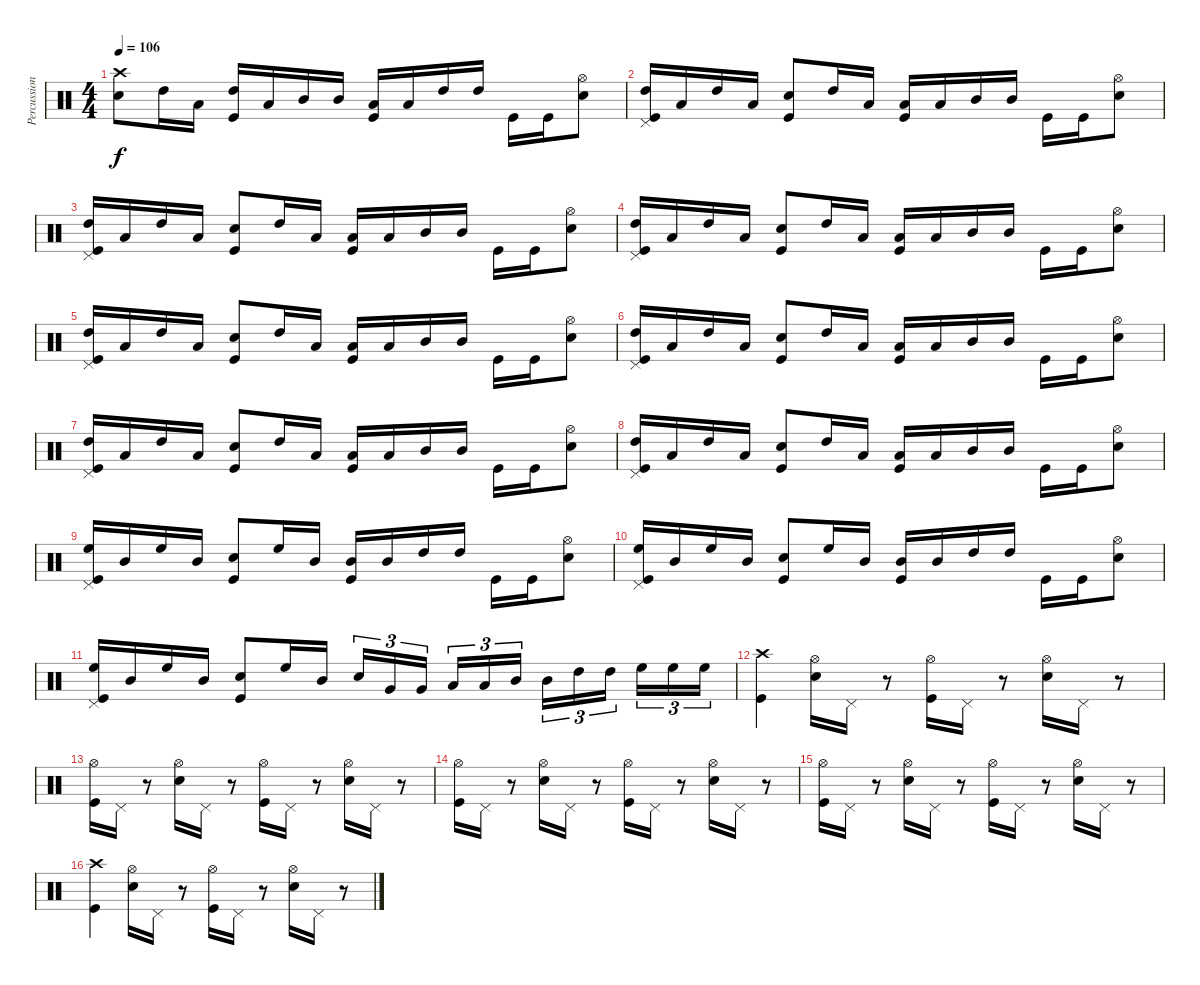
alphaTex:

\track ("Percussion" "Percussion") {instrument percussion}
\staff {score}
\articulation defaults
\ts (4 4)
\tempo 106
\clef neutral
\ks c
("Snare (hit) 2" "Crash high (hit)").8{dy f} "High Tom (hit)".16 "Low Tom (hit)".16 ("High Tom (hit)" "Kick (hit)").16 "Low Tom (hit)".16 "Mid Tom (hit)".16 "Mid Tom (hit)".16 ("Kick (hit)" "Low Tom (hit)").16 "Low Tom (hit)".16 "High Tom (hit)".16 "High Tom (hit)".16 "Kick (hit)".16 "Kick (hit)".16 ("Snare (hit) 2" "Hi-Hat (open)").8 |
("High Tom (hit)" "Kick (hit)" "Pedal Hi-Hat (hit)").16 "Low Tom (hit)".16 "High Tom (hit)".16 "Low Tom (hit)".16 ("Kick (hit)" "Snare (hit) 2").8 "High Tom (hit)".16 "Low Tom (hit)".16 ("Low Tom (hit)" "Kick (hit)").16 "Low Tom (hit)".16 "Mid Tom (hit)".16 "Mid Tom (hit)".16 "Kick (hit)".16 "Kick (hit)".16 ("Snare (hit) 2" "Hi-Hat (open)").8 |
("High Tom (hit)" "Kick (hit)" "Pedal Hi-Hat (hit)").16 "Low Tom (hit)".16 "High Tom (hit)".16 "Low Tom (hit)".16 ("Kick (hit)" "Snare (hit) 2").8 "High Tom (hit)".16 "Low Tom (hit)".16 ("Low Tom (hit)" "Kick (hit)").16 "Low Tom (hit)".16 "Mid Tom (hit)".16 "Mid Tom (hit)".16 "Kick (hit)".16 "Kick (hit)".16 ("Snare (hit) 2" "Hi-Hat (open)").8 |
("High Tom (hit)" "Kick (hit)" "Pedal Hi-Hat (hit)").16 "Low Tom (hit)".16 "High Tom (hit)".16 "Low Tom (hit)".16 ("Kick (hit)" "Snare (hit) 2").8 "High Tom (hit)".16 "Low Tom (hit)".16 ("Low Tom (hit)" "Kick (hit)").16 "Low Tom (hit)".16 "Mid Tom (hit)".16 "Mid Tom (hit)".16 "Kick (hit)".16 "Kick (hit)".16 ("Snare (hit) 2" "Hi-Hat (open)").8 |
("High Tom (hit)" "Kick (hit)" "Pedal Hi-Hat (hit)").16 "Low Tom (hit)".16 "High Tom (hit)".16 "Low Tom (hit)".16 ("Kick (hit)" "Snare (hit) 2").8 "High Tom (hit)".16 "Low Tom (hit)".16 ("Low Tom (hit)" "Kick (hit)").16 "Low Tom (hit)".16 "Mid Tom (hit)".16 "Mid Tom (hit)".16 "Kick (hit)".16 "Kick (hit)".16 ("Snare (hit) 2" "Hi-Hat (open)").8 |
("High Tom (hit)" "Kick (hit)" "Pedal Hi-Hat (hit)").16 "Low Tom (hit)".16 "High Tom (hit)".16 "Low Tom (hit)".16 ("Kick (hit)" "Snare (hit) 2").8 "High Tom (hit)".16 "Low Tom (hit)".16 ("Low Tom (hit)" "Kick (hit)").16 "Low Tom (hit)".16 "Mid Tom (hit)".16 "Mid Tom (hit)".16 "Kick (hit)".16 "Kick (hit)".16 ("Snare (hit) 2" "Hi-Hat (open)").8 |
("High Tom (hit)" "Kick (hit)" "Pedal Hi-Hat (hit)").16 "Low Tom (hit)".16 "High Tom (hit)".16 "Low Tom (hit)".16 ("Kick (hit)" "Snare (hit) 2").8 "High Tom (hit)".16 "Low Tom (hit)".16 ("Low Tom (hit)" "Kick (hit)").16 "Low Tom (hit)".16 "Mid Tom (hit)".16 "Mid Tom (hit)".16 "Kick (hit)".16 "Kick (hit)".16 ("Snare (hit) 2" "Hi-Hat (open)").8 |
("High Tom (hit)" "Kick (hit)" "Pedal Hi-Hat (hit)").16 "Low Tom (hit)".16 "High Tom (hit)".16 "Low Tom (hit)".16 ("Kick (hit)" "Snare (hit) 2").8 "High Tom (hit)".16 "Low Tom (hit)".16 ("Low Tom (hit)" "Kick (hit)").16 "Low Tom (hit)".16 "Mid Tom (hit)".16 "Mid Tom (hit)".16 "Kick (hit)".16 "Kick (hit)".16 ("Snare (hit) 2" "Hi-Hat (open)").8 |
("High Floor Tom (hit)" "Kick (hit)" "Pedal Hi-Hat (hit)").16 "Mid Tom (hit)".16 "High Floor Tom (hit)".16 "Mid Tom (hit)".16 ("Kick (hit)" "Snare (hit) 2").8 "High Floor Tom (hit)".16 "Mid Tom (hit)".16 ("Mid Tom (hit)" "Kick (hit)").16 "Mid Tom (hit)".16 "High Tom (hit)".16 "High Tom (hit)".16 "Kick (hit)".16 "Kick (hit)".16 ("Snare (hit) 2" "Hi-Hat (open)").8 |
("High Floor Tom (hit)" "Kick (hit)" "Pedal Hi-Hat (hit)").16 "Mid Tom (hit)".16 "High Floor Tom (hit)".16 "Mid Tom (hit)".16 ("Kick (hit)" "Snare (hit) 2").8 "High Floor Tom (hit)".16 "Mid Tom (hit)".16 ("Mid Tom (hit)" "Kick (hit)").16 "Mid Tom (hit)".16 "High Tom (hit)".16 "High Tom (hit)".16 "Kick (hit)".16 "Kick (hit)".16 ("Snare (hit) 2" "Hi-Hat (open)").8 |
("High Floor Tom (hit)" "Kick (hit)" "Pedal Hi-Hat (hit)").16 "Mid Tom (hit)".16 "High Floor Tom (hit)".16 "Mid Tom (hit)".16 ("Kick (hit)" "Snare (hit) 2").8 "High Floor Tom (hit)".16 "Mid Tom (hit)".16 "Snare (hit) 2".16{tu (3 2)} "Very Low Tom (hit)".16{tu (3 2)} "Very Low Tom (hit)".16{tu (3 2)} "Low Tom (hit)".16{tu (3 2)} "Low Tom (hit)".16{tu (3 2)} "Mid Tom (hit)".16{tu (3 2)} "Mid Tom (hit)".16{tu (3 2)} "High Tom (hit)".16{tu (3 2)} "High Tom (hit)".16{tu (3 2)} "High Floor Tom (hit)".16{tu (3 2)} "High Floor Tom (hit)".16{tu (3 2)} "High Floor Tom (hit)".16{tu (3 2)} |
("Crash high (hit)" "Kick (hit)").4 ("Hi-Hat (open)" "Snare (hit) 2").16 "Pedal Hi-Hat (hit)".16 r.8 ("Hi-Hat (open)" "Kick (hit)").16 "Pedal Hi-Hat (hit)".16 r.8 ("Hi-Hat (open)" "Snare (hit) 2").16 "Pedal Hi-Hat (hit)".16 r.8 |
("Hi-Hat (open)" "Kick (hit)").16 "Pedal Hi-Hat (hit)".16 r.8 ("Hi-Hat (open)" "Snare (hit) 2").16 "Pedal Hi-Hat (hit)".16 r.8 ("Hi-Hat (open)" "Kick (hit)").16 "Pedal Hi-Hat (hit)".16 r.8 ("Hi-Hat (open)" "Snare (hit) 2").16 "Pedal Hi-Hat (hit)".16 r.8 |
("Hi-Hat (open)" "Kick (hit)").16 "Pedal Hi-Hat (hit)".16 r.8 ("Hi-Hat (open)" "Snare (hit) 2").16 "Pedal Hi-Hat (hit)".16 r.8 ("Hi-Hat (open)" "Kick (hit)").16 "Pedal Hi-Hat (hit)".16 r.8 ("Hi-Hat (open)" "Snare (hit) 2").16 "Pedal Hi-Hat (hit)".16 r.8 |
("Hi-Hat (open)" "Kick (hit)").16 "Pedal Hi-Hat (hit)".16 r.8 ("Hi-Hat (open)" "Snare (hit) 2").16 "Pedal Hi-Hat (hit)".16 r.8 ("Hi-Hat (open)" "Kick (hit)").16 "Pedal Hi-Hat (hit)".16 r.8 ("Hi-Hat (open)" "Snare (hit) 2").16 "Pedal Hi-Hat (hit)".16 r.8 |
("Crash high (hit)" "Kick (hit)").4 ("Hi-Hat (open)" "Snare (hit) 2").16 "Pedal Hi-Hat (hit)".16 r.8 ("Hi-Hat (open)" "Kick (hit)").16 "Pedal Hi-Hat (hit)".16 r.8 ("Hi-Hat (open)" "Snare (hit) 2").16 "Pedal Hi-Hat (hit)".16 r.8
